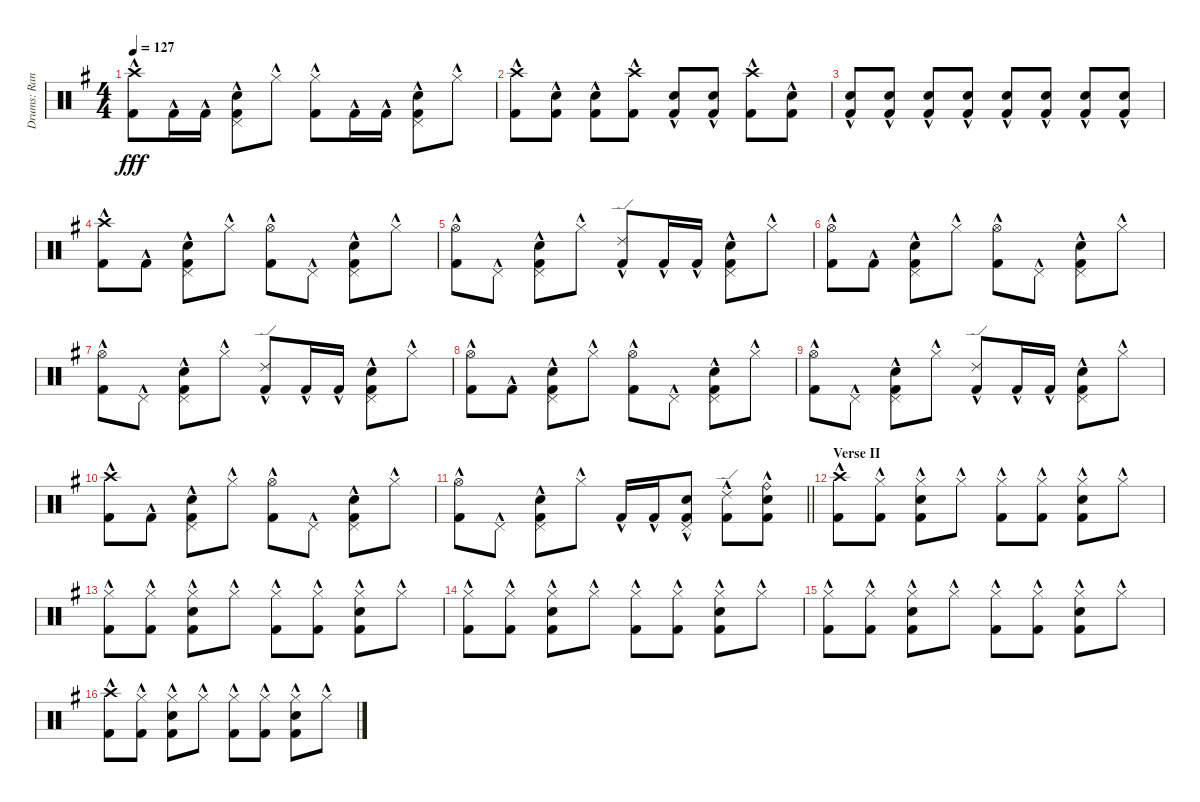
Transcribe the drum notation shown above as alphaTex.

\track ("Drums: Randy" "Drums: Ran") {instrument percussion}
\staff {score}
\articulation defaults
\ts (4 4)
\tempo 127
\clef neutral
\ks g
("Crash high (hit)"{hac} "Kick (hit) 2"{hac}).8{dy fff} "Kick (hit) 2"{hac}.16 "Kick (hit) 2"{hac}.16 ("Pedal Hi-Hat (hit)"{hac} "Snare (hit) 2"{hac} "Kick (hit) 2"{hac}).8 "Hi-Hat (closed)"{hac}.8 ("Hi-Hat (closed)"{hac} "Kick (hit) 2"{hac}).8 "Kick (hit) 2"{hac}.16 "Kick (hit) 2"{hac}.16 ("Pedal Hi-Hat (hit)"{hac} "Snare (hit) 2"{hac} "Kick (hit) 2"{hac}).8 "Hi-Hat (closed)"{hac}.8 |
("Crash high (hit)"{hac} "Kick (hit) 2"{hac}).8 ("Snare (hit) 2"{hac} "Kick (hit) 2"{hac}).8 ("Snare (hit) 2"{hac} "Kick (hit) 2"{hac}).8 ("Crash high (hit)"{hac} "Kick (hit) 2"{hac}).8 ("Snare (hit) 2"{hac} "Kick (hit) 2"{hac}).8 ("Snare (hit) 2"{hac} "Kick (hit) 2"{hac}).8 ("Crash high (hit)"{hac} "Kick (hit) 2"{hac}).8 ("Snare (hit) 2"{hac} "Kick (hit) 2"{hac}).8 |
("Snare (hit) 2"{hac} "Kick (hit) 2"{hac}).8 ("Snare (hit) 2"{hac} "Kick (hit) 2"{hac}).8 ("Snare (hit) 2"{hac} "Kick (hit) 2"{hac}).8 ("Snare (hit) 2"{hac} "Kick (hit) 2"{hac}).8 ("Snare (hit) 2"{hac} "Kick (hit) 2"{hac}).8 ("Snare (hit) 2"{hac} "Kick (hit) 2"{hac}).8 ("Snare (hit) 2"{hac} "Kick (hit) 2"{hac}).8 ("Snare (hit) 2"{hac} "Kick (hit) 2"{hac}).8 |
("Crash high (hit)"{hac} "Kick (hit) 2"{hac}).8 "Kick (hit) 2"{hac}.8 ("Pedal Hi-Hat (hit)"{hac} "Snare (hit) 2"{hac} "Kick (hit) 2"{hac}).8 "Hi-Hat (closed)"{hac}.8 ("Hi-Hat (open)"{hac} "Kick (hit) 2"{hac}).8 "Pedal Hi-Hat (hit)"{hac}.8 ("Pedal Hi-Hat (hit)"{hac} "Snare (hit) 2"{hac} "Kick (hit) 2"{hac}).8 "Hi-Hat (closed)"{hac}.8 |
("Hi-Hat (open)"{hac} "Kick (hit) 2"{hac}).8 "Pedal Hi-Hat (hit)"{hac}.8 ("Pedal Hi-Hat (hit)"{hac} "Snare (hit) 2"{hac} "Kick (hit) 2"{hac}).8 "Hi-Hat (closed)"{hac}.8 ("Ride (edge) 2"{hac} "Kick (hit) 2"{hac}).8 "Kick (hit) 2"{hac}.16 "Kick (hit) 2"{hac}.16 ("Pedal Hi-Hat (hit)"{hac} "Snare (hit) 2"{hac} "Kick (hit) 2"{hac}).8 "Hi-Hat (closed)"{hac}.8 |
("Hi-Hat (open)"{hac} "Kick (hit) 2"{hac}).8 "Kick (hit) 2"{hac}.8 ("Pedal Hi-Hat (hit)"{hac} "Snare (hit) 2"{hac} "Kick (hit) 2"{hac}).8 "Hi-Hat (closed)"{hac}.8 ("Hi-Hat (open)"{hac} "Kick (hit) 2"{hac}).8 "Pedal Hi-Hat (hit)"{hac}.8 ("Pedal Hi-Hat (hit)"{hac} "Snare (hit) 2"{hac} "Kick (hit) 2"{hac}).8 "Hi-Hat (closed)"{hac}.8 |
("Hi-Hat (open)"{hac} "Kick (hit) 2"{hac}).8 "Pedal Hi-Hat (hit)"{hac}.8 ("Pedal Hi-Hat (hit)"{hac} "Snare (hit) 2"{hac} "Kick (hit) 2"{hac}).8 "Hi-Hat (closed)"{hac}.8 ("Ride (edge) 2"{hac} "Kick (hit) 2"{hac}).8 "Kick (hit) 2"{hac}.16 "Kick (hit) 2"{hac}.16 ("Pedal Hi-Hat (hit)"{hac} "Snare (hit) 2"{hac} "Kick (hit) 2"{hac}).8 "Hi-Hat (closed)"{hac}.8 |
("Hi-Hat (open)"{hac} "Kick (hit) 2"{hac}).8 "Kick (hit) 2"{hac}.8 ("Pedal Hi-Hat (hit)"{hac} "Snare (hit) 2"{hac} "Kick (hit) 2"{hac}).8 "Hi-Hat (closed)"{hac}.8 ("Hi-Hat (open)"{hac} "Kick (hit) 2"{hac}).8 "Pedal Hi-Hat (hit)"{hac}.8 ("Pedal Hi-Hat (hit)"{hac} "Snare (hit) 2"{hac} "Kick (hit) 2"{hac}).8 "Hi-Hat (closed)"{hac}.8 |
("Hi-Hat (open)"{hac} "Kick (hit) 2"{hac}).8 "Pedal Hi-Hat (hit)"{hac}.8 ("Pedal Hi-Hat (hit)"{hac} "Snare (hit) 2"{hac} "Kick (hit) 2"{hac}).8 "Hi-Hat (closed)"{hac}.8 ("Ride (edge) 2"{hac} "Kick (hit) 2"{hac}).8 "Kick (hit) 2"{hac}.16 "Kick (hit) 2"{hac}.16 ("Pedal Hi-Hat (hit)"{hac} "Snare (hit) 2"{hac} "Kick (hit) 2"{hac}).8 "Hi-Hat (closed)"{hac}.8 |
("Crash high (hit)"{hac} "Kick (hit) 2"{hac}).8 "Kick (hit) 2"{hac}.8 ("Pedal Hi-Hat (hit)"{hac} "Snare (hit) 2"{hac} "Kick (hit) 2"{hac}).8 "Hi-Hat (closed)"{hac}.8 ("Hi-Hat (open)"{hac} "Kick (hit) 2"{hac}).8 "Pedal Hi-Hat (hit)"{hac}.8 ("Pedal Hi-Hat (hit)"{hac} "Snare (hit) 2"{hac} "Kick (hit) 2"{hac}).8 "Hi-Hat (closed)"{hac}.8 |
\barLineRight lightlight
("Hi-Hat (open)"{hac} "Kick (hit) 2"{hac}).8 "Pedal Hi-Hat (hit)"{hac}.8 ("Pedal Hi-Hat (hit)"{hac} "Snare (hit) 2"{hac} "Kick (hit) 2"{hac}).8 "Hi-Hat (closed)"{hac}.8 "Kick (hit) 2"{hac}.16 "Kick (hit) 2"{hac}.16 ("Pedal Hi-Hat (hit)"{hac} "Snare (hit) 2"{hac} "Kick (hit) 2"{hac}).8 ("Ride (edge) 2"{hac} "Kick (hit) 2"{hac}).8 ("Ride (bell)"{hac} "Snare (hit) 2"{hac} "Kick (hit) 2"{hac}).8 |
\section ("" "Verse II")
("Crash high (hit)"{hac} "Kick (hit) 2"{hac}).8 ("Hi-Hat (closed)"{hac} "Kick (hit) 2"{hac}).8 ("Hi-Hat (closed)"{hac} "Snare (hit) 2"{hac} "Kick (hit) 2"{hac}).8 "Hi-Hat (closed)"{hac}.8 ("Hi-Hat (closed)"{hac} "Kick (hit) 2"{hac}).8 ("Hi-Hat (closed)"{hac} "Kick (hit) 2"{hac}).8 ("Hi-Hat (closed)"{hac} "Snare (hit) 2"{hac} "Kick (hit) 2"{hac}).8 "Hi-Hat (closed)"{hac}.8 |
("Hi-Hat (closed)"{hac} "Kick (hit) 2"{hac}).8 ("Hi-Hat (closed)"{hac} "Kick (hit) 2"{hac}).8 ("Hi-Hat (closed)"{hac} "Snare (hit) 2"{hac} "Kick (hit) 2"{hac}).8 "Hi-Hat (closed)"{hac}.8 ("Hi-Hat (closed)"{hac} "Kick (hit) 2"{hac}).8 ("Hi-Hat (closed)"{hac} "Kick (hit) 2"{hac}).8 ("Hi-Hat (closed)"{hac} "Snare (hit) 2"{hac} "Kick (hit) 2"{hac}).8 "Hi-Hat (closed)"{hac}.8 |
("Hi-Hat (closed)"{hac} "Kick (hit) 2"{hac}).8 ("Hi-Hat (closed)"{hac} "Kick (hit) 2"{hac}).8 ("Hi-Hat (closed)"{hac} "Snare (hit) 2"{hac} "Kick (hit) 2"{hac}).8 "Hi-Hat (closed)"{hac}.8 ("Hi-Hat (closed)"{hac} "Kick (hit) 2"{hac}).8 ("Hi-Hat (closed)"{hac} "Kick (hit) 2"{hac}).8 ("Hi-Hat (closed)"{hac} "Snare (hit) 2"{hac} "Kick (hit) 2"{hac}).8 "Hi-Hat (closed)"{hac}.8 |
("Hi-Hat (closed)"{hac} "Kick (hit) 2"{hac}).8 ("Hi-Hat (closed)"{hac} "Kick (hit) 2"{hac}).8 ("Hi-Hat (closed)"{hac} "Snare (hit) 2"{hac} "Kick (hit) 2"{hac}).8 "Hi-Hat (closed)"{hac}.8 ("Hi-Hat (closed)"{hac} "Kick (hit) 2"{hac}).8 ("Hi-Hat (closed)"{hac} "Kick (hit) 2"{hac}).8 ("Hi-Hat (closed)"{hac} "Snare (hit) 2"{hac} "Kick (hit) 2"{hac}).8 "Hi-Hat (closed)"{hac}.8 |
("Crash high (hit)"{hac} "Kick (hit) 2"{hac}).8 ("Hi-Hat (closed)"{hac} "Kick (hit) 2"{hac}).8 ("Hi-Hat (closed)"{hac} "Snare (hit) 2"{hac} "Kick (hit) 2"{hac}).8 "Hi-Hat (closed)"{hac}.8 ("Hi-Hat (closed)"{hac} "Kick (hit) 2"{hac}).8 ("Hi-Hat (closed)"{hac} "Kick (hit) 2"{hac}).8 ("Hi-Hat (closed)"{hac} "Snare (hit) 2"{hac} "Kick (hit) 2"{hac}).8 "Hi-Hat (closed)"{hac}.8
